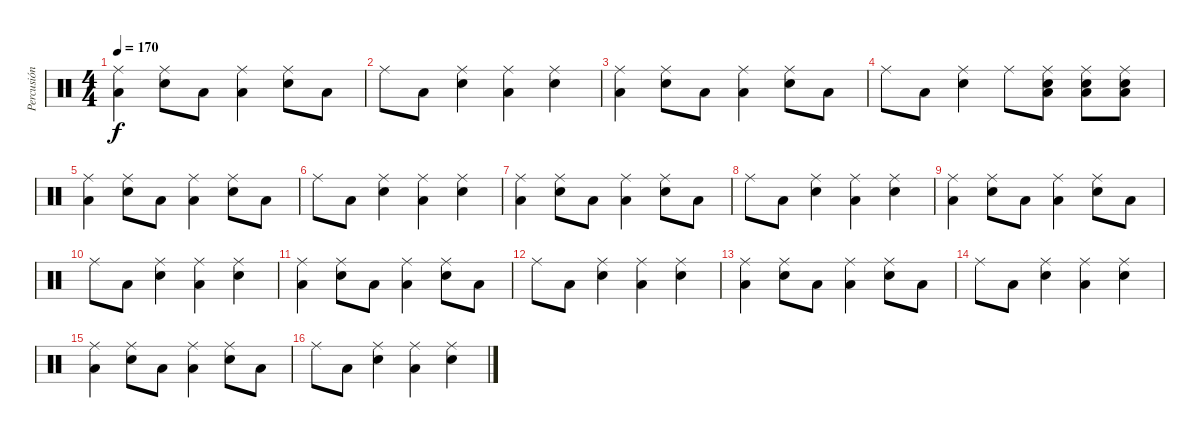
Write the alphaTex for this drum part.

\track ("Percusión" "Percusión") {instrument percussion}
\staff {score}
\articulation defaults
\ts (4 4)
\tempo 170
\clef neutral
\ks c
("Low Floor Tom (hit)" "Ride (middle)").4{dy f} ("Snare (hit) 2" "Ride (middle)").8 "Low Floor Tom (hit)".8 ("Low Floor Tom (hit)" "Ride (middle)").4 ("Snare (hit) 2" "Ride (middle)").8 "Low Floor Tom (hit)".8 |
"Ride (middle)".8 "Low Floor Tom (hit)".8 ("Snare (hit) 2" "Ride (middle)").4 ("Low Floor Tom (hit)" "Ride (middle)").4 ("Snare (hit) 2" "Ride (middle)").4 |
("Low Floor Tom (hit)" "Ride (middle)").4 ("Snare (hit) 2" "Ride (middle)").8 "Low Floor Tom (hit)".8 ("Low Floor Tom (hit)" "Ride (middle)").4 ("Snare (hit) 2" "Ride (middle)").8 "Low Floor Tom (hit)".8 |
"Ride (middle)".8 "Low Floor Tom (hit)".8 ("Snare (hit) 2" "Ride (middle)").4 "Ride (middle)".8 ("Low Floor Tom (hit)" "Snare (hit) 2" "Ride (middle)").8 ("Low Floor Tom (hit)" "Snare (hit) 2" "Ride (middle)").8 ("Low Floor Tom (hit)" "Snare (hit) 2" "Ride (middle)").8 |
("Low Floor Tom (hit)" "Ride (middle)").4 ("Snare (hit) 2" "Ride (middle)").8 "Low Floor Tom (hit)".8 ("Low Floor Tom (hit)" "Ride (middle)").4 ("Snare (hit) 2" "Ride (middle)").8 "Low Floor Tom (hit)".8 |
"Ride (middle)".8 "Low Floor Tom (hit)".8 ("Snare (hit) 2" "Ride (middle)").4 ("Low Floor Tom (hit)" "Ride (middle)").4 ("Snare (hit) 2" "Ride (middle)").4 |
("Low Floor Tom (hit)" "Ride (middle)").4 ("Snare (hit) 2" "Ride (middle)").8 "Low Floor Tom (hit)".8 ("Low Floor Tom (hit)" "Ride (middle)").4 ("Snare (hit) 2" "Ride (middle)").8 "Low Floor Tom (hit)".8 |
"Ride (middle)".8 "Low Floor Tom (hit)".8 ("Snare (hit) 2" "Ride (middle)").4 ("Low Floor Tom (hit)" "Ride (middle)").4 ("Snare (hit) 2" "Ride (middle)").4 |
("Low Floor Tom (hit)" "Ride (middle)").4 ("Snare (hit) 2" "Ride (middle)").8 "Low Floor Tom (hit)".8 ("Low Floor Tom (hit)" "Ride (middle)").4 ("Snare (hit) 2" "Ride (middle)").8 "Low Floor Tom (hit)".8 |
"Ride (middle)".8 "Low Floor Tom (hit)".8 ("Snare (hit) 2" "Ride (middle)").4 ("Low Floor Tom (hit)" "Ride (middle)").4 ("Snare (hit) 2" "Ride (middle)").4 |
("Low Floor Tom (hit)" "Ride (middle)").4 ("Snare (hit) 2" "Ride (middle)").8 "Low Floor Tom (hit)".8 ("Low Floor Tom (hit)" "Ride (middle)").4 ("Snare (hit) 2" "Ride (middle)").8 "Low Floor Tom (hit)".8 |
"Ride (middle)".8 "Low Floor Tom (hit)".8 ("Snare (hit) 2" "Ride (middle)").4 ("Low Floor Tom (hit)" "Ride (middle)").4 ("Snare (hit) 2" "Ride (middle)").4 |
("Low Floor Tom (hit)" "Ride (middle)").4 ("Snare (hit) 2" "Ride (middle)").8 "Low Floor Tom (hit)".8 ("Low Floor Tom (hit)" "Ride (middle)").4 ("Snare (hit) 2" "Ride (middle)").8 "Low Floor Tom (hit)".8 |
"Ride (middle)".8 "Low Floor Tom (hit)".8 ("Snare (hit) 2" "Ride (middle)").4 ("Low Floor Tom (hit)" "Ride (middle)").4 ("Snare (hit) 2" "Ride (middle)").4 |
("Low Floor Tom (hit)" "Ride (middle)").4 ("Snare (hit) 2" "Ride (middle)").8 "Low Floor Tom (hit)".8 ("Low Floor Tom (hit)" "Ride (middle)").4 ("Snare (hit) 2" "Ride (middle)").8 "Low Floor Tom (hit)".8 |
"Ride (middle)".8 "Low Floor Tom (hit)".8 ("Snare (hit) 2" "Ride (middle)").4 ("Low Floor Tom (hit)" "Ride (middle)").4 ("Snare (hit) 2" "Ride (middle)").4
